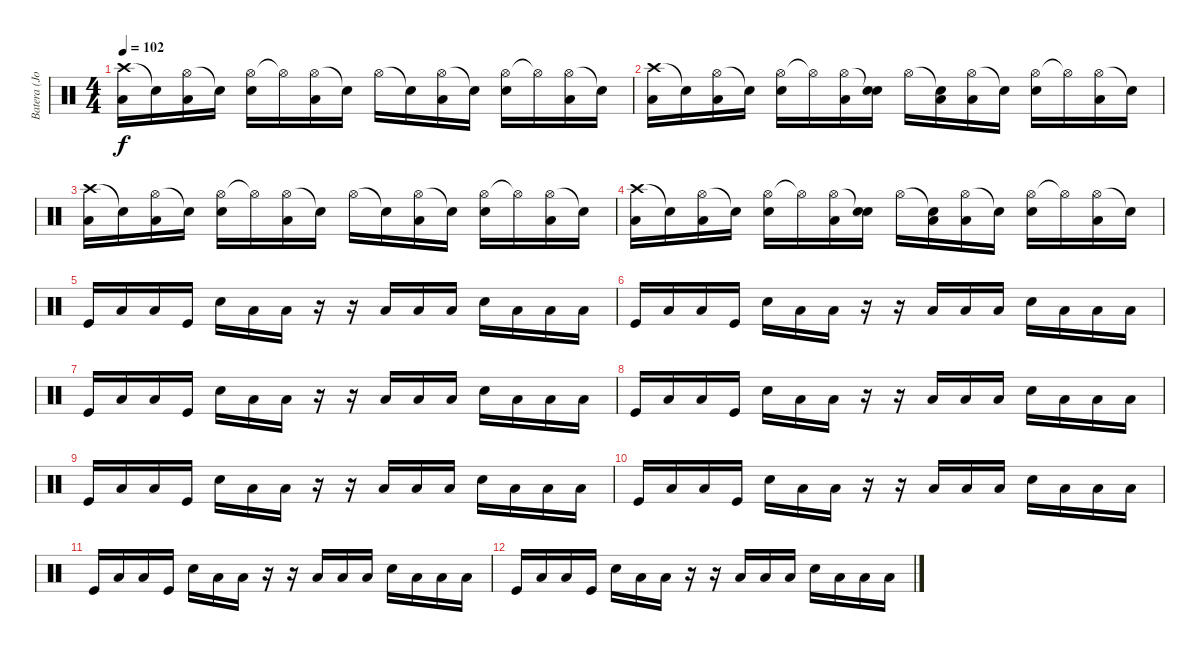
\track ("Batera (John)" "Batera (Jo") {instrument percussion}
\staff {score}
\articulation defaults
\ts (4 4)
\tempo 102
\clef neutral
\ks c
("Crash high (hit)" "Low Tom (hit)").16{dy f} "Snare (hit)"{t}.16 ("Hi-Hat (open)" "Low Tom (hit)").16 "Snare (hit)"{t}.16 ("Hi-Hat (open)" "Snare (hit) 2").16 "Hi-Hat (open)"{t}.16 ("Hi-Hat (open)" "Low Tom (hit)").16 "Snare (hit)"{t}.16 "Hi-Hat (open)".16 "Snare (hit)"{t}.16 ("Hi-Hat (open)" "Low Tom (hit)").16 "Snare (hit)"{t}.16 ("Hi-Hat (open)" "Snare (hit) 2").16 "Hi-Hat (open)"{t}.16 ("Hi-Hat (open)" "Low Tom (hit)").16 "Snare (hit)"{t}.16 |
("Crash high (hit)" "Low Tom (hit)").16 "Snare (hit)"{t}.16 ("Hi-Hat (open)" "Low Tom (hit)").16 "Snare (hit)"{t}.16 ("Hi-Hat (open)" "Snare (hit) 2").16 "Hi-Hat (open)"{t}.16 ("Hi-Hat (open)" "Low Tom (hit)").16 ("Snare (hit)"{t} "Snare (hit) 2").16 "Hi-Hat (open)".16 ("Snare (hit)"{t} "Low Tom (hit)").16 ("Hi-Hat (open)" "Low Tom (hit)").16 "Snare (hit)"{t}.16 ("Hi-Hat (open)" "Snare (hit) 2").16 "Hi-Hat (open)"{t}.16 ("Hi-Hat (open)" "Low Tom (hit)").16 "Snare (hit)"{t}.16 |
("Crash high (hit)" "Low Tom (hit)").16 "Snare (hit)"{t}.16 ("Hi-Hat (open)" "Low Tom (hit)").16 "Snare (hit)"{t}.16 ("Hi-Hat (open)" "Snare (hit) 2").16 "Hi-Hat (open)"{t}.16 ("Hi-Hat (open)" "Low Tom (hit)").16 "Snare (hit)"{t}.16 "Hi-Hat (open)".16 "Snare (hit)"{t}.16 ("Hi-Hat (open)" "Low Tom (hit)").16 "Snare (hit)"{t}.16 ("Hi-Hat (open)" "Snare (hit) 2").16 "Hi-Hat (open)"{t}.16 ("Hi-Hat (open)" "Low Tom (hit)").16 "Snare (hit)"{t}.16 |
("Crash high (hit)" "Low Tom (hit)").16 "Snare (hit)"{t}.16 ("Hi-Hat (open)" "Low Tom (hit)").16 "Snare (hit)"{t}.16 ("Hi-Hat (open)" "Snare (hit) 2").16 "Hi-Hat (open)"{t}.16 ("Hi-Hat (open)" "Low Tom (hit)").16 ("Snare (hit)"{t} "Snare (hit) 2").16 "Hi-Hat (open)".16 ("Snare (hit)"{t} "Low Tom (hit)").16 ("Hi-Hat (open)" "Low Tom (hit)").16 "Snare (hit)"{t}.16 ("Hi-Hat (open)" "Snare (hit) 2").16 "Hi-Hat (open)"{t}.16 ("Hi-Hat (open)" "Low Tom (hit)").16 "Snare (hit)"{t}.16 |
"Kick (hit)".16 "Low Tom (hit)".16 "Low Tom (hit)".16 "Kick (hit)".16 "Snare (hit) 2".16 "Low Tom (hit)".16 "Low Tom (hit)".16 r.16 r.16 "Low Tom (hit)".16 "Low Tom (hit)".16 "Low Tom (hit)".16 "Snare (hit) 2".16 "Low Tom (hit)".16 "Low Tom (hit)".16 "Low Tom (hit)".16 |
"Kick (hit)".16 "Low Tom (hit)".16 "Low Tom (hit)".16 "Kick (hit)".16 "Snare (hit) 2".16 "Low Tom (hit)".16 "Low Tom (hit)".16 r.16 r.16 "Low Tom (hit)".16 "Low Tom (hit)".16 "Low Tom (hit)".16 "Snare (hit) 2".16 "Low Tom (hit)".16 "Low Tom (hit)".16 "Low Tom (hit)".16 |
"Kick (hit)".16{volume 11} "Low Tom (hit)".16 "Low Tom (hit)".16 "Kick (hit)".16 "Snare (hit) 2".16 "Low Tom (hit)".16 "Low Tom (hit)".16 r.16 r.16 "Low Tom (hit)".16 "Low Tom (hit)".16 "Low Tom (hit)".16 "Snare (hit) 2".16 "Low Tom (hit)".16 "Low Tom (hit)".16 "Low Tom (hit)".16 |
"Kick (hit)".16 "Low Tom (hit)".16 "Low Tom (hit)".16 "Kick (hit)".16 "Snare (hit) 2".16 "Low Tom (hit)".16 "Low Tom (hit)".16 r.16 r.16 "Low Tom (hit)".16 "Low Tom (hit)".16 "Low Tom (hit)".16 "Snare (hit) 2".16 "Low Tom (hit)".16 "Low Tom (hit)".16 "Low Tom (hit)".16 |
"Kick (hit)".16{volume 8} "Low Tom (hit)".16 "Low Tom (hit)".16 "Kick (hit)".16 "Snare (hit) 2".16 "Low Tom (hit)".16 "Low Tom (hit)".16 r.16 r.16 "Low Tom (hit)".16 "Low Tom (hit)".16 "Low Tom (hit)".16 "Snare (hit) 2".16 "Low Tom (hit)".16 "Low Tom (hit)".16 "Low Tom (hit)".16 |
"Kick (hit)".16 "Low Tom (hit)".16 "Low Tom (hit)".16 "Kick (hit)".16 "Snare (hit) 2".16 "Low Tom (hit)".16 "Low Tom (hit)".16 r.16 r.16 "Low Tom (hit)".16 "Low Tom (hit)".16 "Low Tom (hit)".16 "Snare (hit) 2".16 "Low Tom (hit)".16 "Low Tom (hit)".16 "Low Tom (hit)".16 |
"Kick (hit)".16{volume 4} "Low Tom (hit)".16 "Low Tom (hit)".16 "Kick (hit)".16 "Snare (hit) 2".16 "Low Tom (hit)".16 "Low Tom (hit)".16 r.16 r.16 "Low Tom (hit)".16 "Low Tom (hit)".16 "Low Tom (hit)".16 "Snare (hit) 2".16 "Low Tom (hit)".16 "Low Tom (hit)".16 "Low Tom (hit)".16 |
"Kick (hit)".16 "Low Tom (hit)".16 "Low Tom (hit)".16 "Kick (hit)".16 "Snare (hit) 2".16 "Low Tom (hit)".16 "Low Tom (hit)".16 r.16 r.16 "Low Tom (hit)".16 "Low Tom (hit)".16 "Low Tom (hit)".16 "Snare (hit) 2".16 "Low Tom (hit)".16 "Low Tom (hit)".16 "Low Tom (hit)".16
